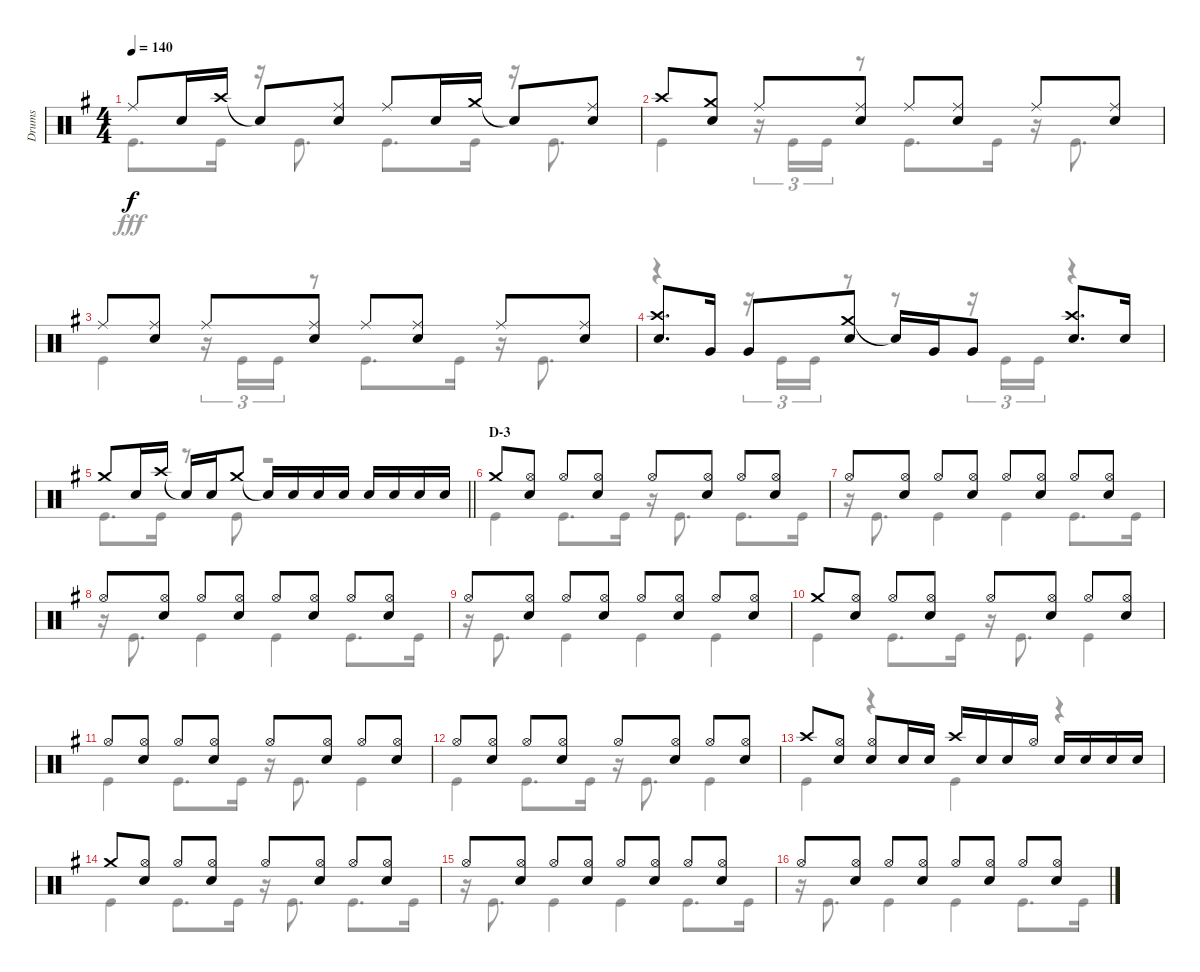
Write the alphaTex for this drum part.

\track ("Drums" "Drums") {instrument percussion}
\staff {score}
\articulation defaults
\voice
\ts (4 4)
\tempo 140
\clef neutral
\ks g "Ride (middle)".8{dy f} "Snare (hit) 2".16 "Crash high (hit)".16 "Snare (hit)"{t}.8
("Ride (middle)" "Snare (hit) 2").8 "Ride (middle)".8 "Snare (hit) 2".16 "Crash medium (hit)".16 "Snare (hit)"{t}.8 ("Ride (middle)" "Snare (hit) 2").8 |
"Crash high (hit)".8 ("Crash medium (hit)" "Snare (hit) 2").8 "Ride (middle)".8 ("Ride (middle)" "Snare (hit) 2").8 "Ride (middle)".8 ("Ride (middle)" "Snare (hit) 2").8 "Ride (middle)".8 ("Ride (middle)" "Snare (hit) 2").8 |
"Ride (middle)".8 ("Ride (middle)" "Snare (hit) 2").8 "Ride (middle)".8 ("Ride (middle)" "Snare (hit) 2").8 "Ride (middle)".8 ("Ride (middle)" "Snare (hit) 2").8 "Ride (middle)".8 ("Ride (middle)" "Snare (hit) 2").8 |
("Crash high (hit)" "Snare (hit) 2").8{d} "Very Low Tom (hit)".16 "Very Low Tom (hit)".8 ("Crash medium (hit)" "Snare (hit) 2").8 "Snare (hit)"{t}.16 "Very Low Tom (hit)".16 "Very Low Tom (hit)".8 ("Crash high (hit)" "Snare (hit) 2").8{d} "Snare (hit) 2".16 |
\barLineRight lightlight "Crash medium (hit)".8 "Snare (hit) 2".16 "Crash high (hit)".16 "Snare (hit)"{t}.16 "Snare (hit) 2".16 "Crash medium (hit)".8 "Snare (hit)"{t}.16 "Snare (hit) 2".16 "Snare (hit) 2".16 "Snare (hit) 2".16 "Snare (hit) 2".16 "Snare (hit) 2".16 "Snare (hit) 2".16 "Snare (hit) 2".16
|
\section ("" "D-3")
"Crash medium (hit)".8 ("Hi-Hat (open)" "Snare (hit) 2").8 "Hi-Hat (open)".8 ("Hi-Hat (open)" "Snare (hit) 2").8 "Hi-Hat (open)".8 ("Hi-Hat (open)" "Snare (hit) 2").8 "Hi-Hat (open)".8 ("Hi-Hat (open)" "Snare (hit) 2").8 |
"Hi-Hat (open)".8 ("Hi-Hat (open)" "Snare (hit) 2").8 "Hi-Hat (open)".8 ("Hi-Hat (open)" "Snare (hit) 2").8 "Hi-Hat (open)".8 ("Hi-Hat (open)" "Snare (hit) 2").8 "Hi-Hat (open)".8 ("Hi-Hat (open)" "Snare (hit) 2").8 |
"Hi-Hat (open)".8 ("Hi-Hat (open)" "Snare (hit) 2").8 "Hi-Hat (open)".8 ("Hi-Hat (open)" "Snare (hit) 2").8 "Hi-Hat (open)".8 ("Hi-Hat (open)" "Snare (hit) 2").8 "Hi-Hat (open)".8 ("Hi-Hat (open)" "Snare (hit) 2").8 |
"Hi-Hat (open)".8 ("Hi-Hat (open)" "Snare (hit) 2").8 "Hi-Hat (open)".8 ("Hi-Hat (open)" "Snare (hit) 2").8 "Hi-Hat (open)".8 ("Hi-Hat (open)" "Snare (hit) 2").8 "Hi-Hat (open)".8 ("Hi-Hat (open)" "Snare (hit) 2").8 |
"Crash medium (hit)".8 ("Hi-Hat (open)" "Snare (hit) 2").8 "Hi-Hat (open)".8 ("Hi-Hat (open)" "Snare (hit) 2").8 "Hi-Hat (open)".8 ("Hi-Hat (open)" "Snare (hit) 2").8 "Hi-Hat (open)".8 ("Hi-Hat (open)" "Snare (hit) 2").8 |
"Hi-Hat (open)".8 ("Hi-Hat (open)" "Snare (hit) 2").8 "Hi-Hat (open)".8 ("Hi-Hat (open)" "Snare (hit) 2").8 "Hi-Hat (open)".8 ("Hi-Hat (open)" "Snare (hit) 2").8 "Hi-Hat (open)".8 ("Hi-Hat (open)" "Snare (hit) 2").8 |
"Hi-Hat (open)".8 ("Hi-Hat (open)" "Snare (hit) 2").8 "Hi-Hat (open)".8 ("Hi-Hat (open)" "Snare (hit) 2").8 "Hi-Hat (open)".8 ("Hi-Hat (open)" "Snare (hit) 2").8 "Hi-Hat (open)".8 ("Hi-Hat (open)" "Snare (hit) 2").8 |
"Crash high (hit)".8 ("Hi-Hat (open)" "Snare (hit) 2").8 ("Hi-Hat (open)" "Snare (hit) 2").8 "Snare (hit) 2".16 "Snare (hit) 2".16 "Crash high (hit)".16 "Snare (hit) 2".16 "Snare (hit) 2".16 "Hi-Hat (open)".16 "Snare (hit) 2".16 "Snare (hit) 2".16 "Snare (hit) 2".16 "Snare (hit) 2".16 |
"Crash medium (hit)".8 ("Hi-Hat (open)" "Snare (hit) 2").8 "Hi-Hat (open)".8 ("Hi-Hat (open)" "Snare (hit) 2").8 "Hi-Hat (open)".8 ("Hi-Hat (open)" "Snare (hit) 2").8 "Hi-Hat (open)".8 ("Hi-Hat (open)" "Snare (hit) 2").8 |
"Hi-Hat (open)".8 ("Hi-Hat (open)" "Snare (hit) 2").8 "Hi-Hat (open)".8 ("Hi-Hat (open)" "Snare (hit) 2").8 "Hi-Hat (open)".8 ("Hi-Hat (open)" "Snare (hit) 2").8 "Hi-Hat (open)".8 ("Hi-Hat (open)" "Snare (hit) 2").8 |
"Hi-Hat (open)".8 ("Hi-Hat (open)" "Snare (hit) 2").8 "Hi-Hat (open)".8 ("Hi-Hat (open)" "Snare (hit) 2").8 "Hi-Hat (open)".8 ("Hi-Hat (open)" "Snare (hit) 2").8 "Hi-Hat (open)".8 ("Hi-Hat (open)" "Snare (hit) 2").8
\voice
\clef neutral
\ottava regular
\simile none
\ks g "Kick (hit)".8{d dy fff} "Kick (hit)".16
r.16 "Kick (hit)".8{d} "Kick (hit)".8{d} "Kick (hit)".16 r.16 "Kick (hit)".8{d} |
"Kick (hit)".4 r.16{tu (3 2)} "Kick (hit)".16{tu (3 2)} "Kick (hit)".16{tu (3 2)} r.8 "Kick (hit)".8{d} "Kick (hit)".16 r.16 "Kick (hit)".8{d} |
"Kick (hit)".4 r.16{tu (3 2)} "Kick (hit)".16{tu (3 2)} "Kick (hit)".16{tu (3 2)} r.8 "Kick (hit)".8{d} "Kick (hit)".16 r.16 "Kick (hit)".8{d} |
r.4 r.16{tu (3 2)} "Kick (hit)".16{tu (3 2)} "Kick (hit)".16{tu (3 2)} r.8 r.8 r.16{tu (3 2)} "Kick (hit)".16{tu (3 2)} "Kick (hit)".16{tu (3 2)} r.4 |
\barLineRight lightlight "Kick (hit)".8{d} "Kick (hit)".16
r.8 "Kick (hit)".8 r.2 |
"Kick (hit)".4 "Kick (hit)".8{d} "Kick (hit)".16 r.16 "Kick (hit)".8{d} "Kick (hit)".8{d} "Kick (hit)".16 |
r.16 "Kick (hit)".8{d} "Kick (hit)".4 "Kick (hit)".4 "Kick (hit)".8{d} "Kick (hit)".16 |
r.16 "Kick (hit)".8{d} "Kick (hit)".4 "Kick (hit)".4 "Kick (hit)".8{d} "Kick (hit)".16 |
r.16 "Kick (hit)".8{d} "Kick (hit)".4 "Kick (hit)".4 "Kick (hit)".4 |
"Kick (hit)".4 "Kick (hit)".8{d} "Kick (hit)".16 r.16 "Kick (hit)".8{d} "Kick (hit)".4 |
"Kick (hit)".4 "Kick (hit)".8{d} "Kick (hit)".16 r.16 "Kick (hit)".8{d} "Kick (hit)".4 |
"Kick (hit)".4 "Kick (hit)".8{d} "Kick (hit)".16 r.16 "Kick (hit)".8{d} "Kick (hit)".4 |
"Kick (hit)".4 r.4 "Kick (hit)".4 r.4 |
"Kick (hit)".4 "Kick (hit)".8{d} "Kick (hit)".16 r.16 "Kick (hit)".8{d} "Kick (hit)".8{d} "Kick (hit)".16 |
r.16 "Kick (hit)".8{d} "Kick (hit)".4 "Kick (hit)".4 "Kick (hit)".8{d} "Kick (hit)".16 |
r.16 "Kick (hit)".8{d} "Kick (hit)".4 "Kick (hit)".4 "Kick (hit)".8{d} "Kick (hit)".16
